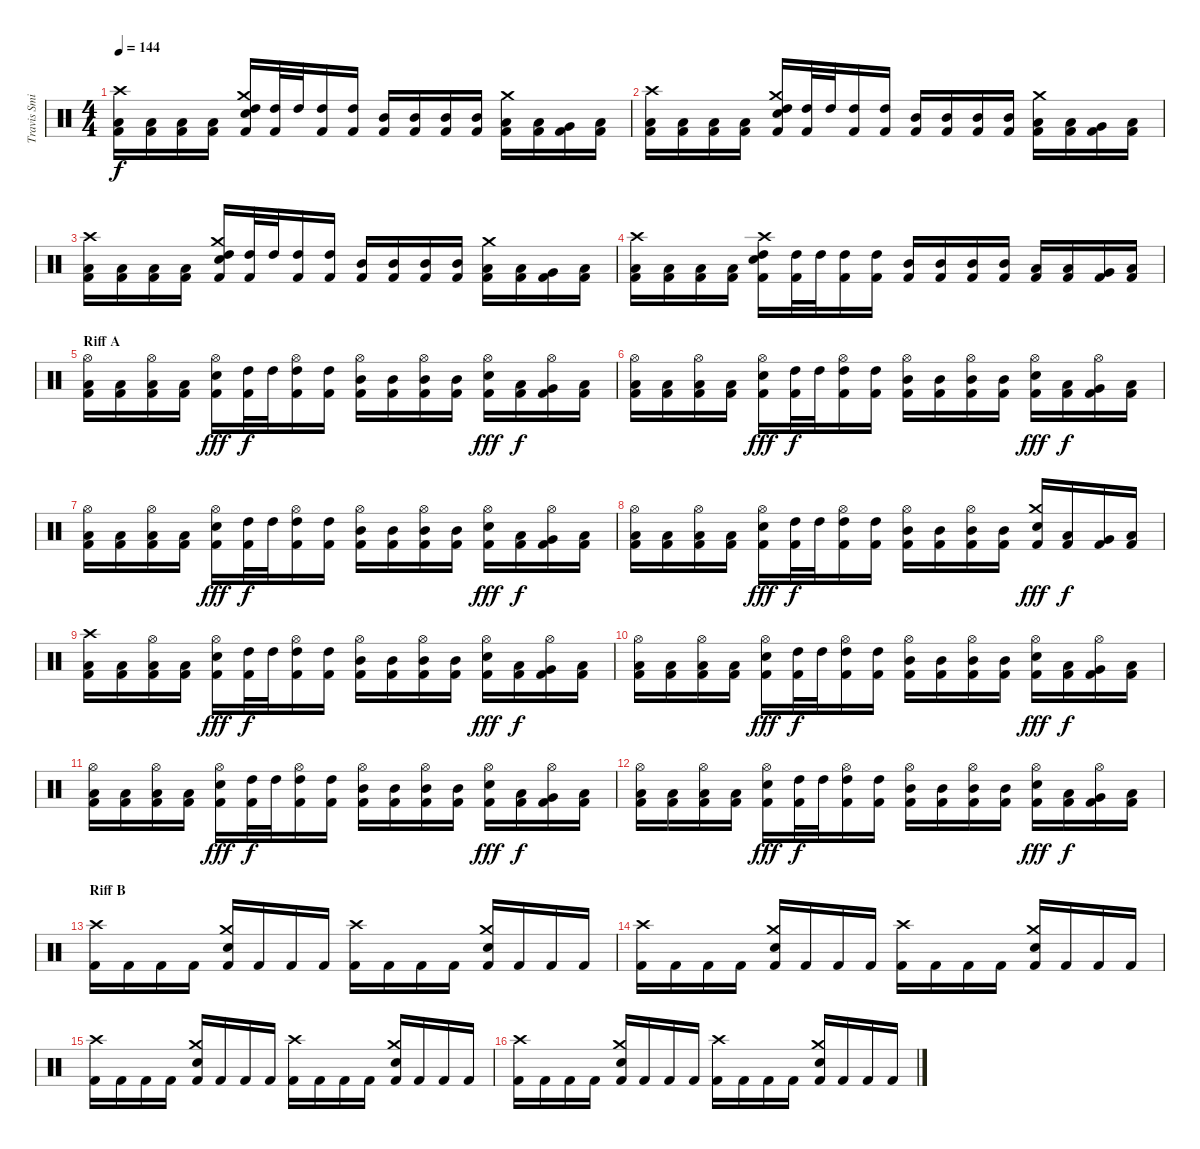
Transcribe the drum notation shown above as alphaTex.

\track ("Travis Smith" "Travis Smi") {instrument percussion}
\staff {score}
\articulation defaults
\ts (4 4)
\tempo 144
\clef neutral
\ks c
("Crash high (hit)" "Low Tom (hit)" "Kick (hit) 2").16{dy f} ("Low Tom (hit)" "Kick (hit) 2").16 ("Low Tom (hit)" "Kick (hit) 2").16 ("Low Tom (hit)" "Kick (hit) 2").16 ("Crash medium (hit)" "Electric Snare (hit)" "High Tom (hit)" "Kick (hit) 2").16 ("High Tom (hit)" "Kick (hit) 2").32 "High Tom (hit)".32 ("High Tom (hit)" "Kick (hit) 2").16 ("High Tom (hit)" "Kick (hit) 2").16 ("Mid Tom (hit)" "Kick (hit) 2").16 ("Mid Tom (hit)" "Kick (hit) 2").16 ("Mid Tom (hit)" "Kick (hit) 2").16 ("Mid Tom (hit)" "Kick (hit) 2").16 ("Crash medium (hit)" "Low Tom (hit)" "Kick (hit) 2").16 ("Low Tom (hit)" "Kick (hit) 2").16 ("Very Low Tom (hit)" "Kick (hit) 2").16 ("Low Floor Tom (hit)" "Kick (hit) 2").16 |
("Crash high (hit)" "Low Tom (hit)" "Kick (hit) 2").16 ("Low Tom (hit)" "Kick (hit) 2").16 ("Low Tom (hit)" "Kick (hit) 2").16 ("Low Tom (hit)" "Kick (hit) 2").16 ("Crash medium (hit)" "Electric Snare (hit)" "High Tom (hit)" "Kick (hit) 2").16 ("High Tom (hit)" "Kick (hit) 2").32 "High Tom (hit)".32 ("High Tom (hit)" "Kick (hit) 2").16 ("High Tom (hit)" "Kick (hit) 2").16 ("Mid Tom (hit)" "Kick (hit) 2").16 ("Mid Tom (hit)" "Kick (hit) 2").16 ("Mid Tom (hit)" "Kick (hit) 2").16 ("Mid Tom (hit)" "Kick (hit) 2").16 ("Crash medium (hit)" "Low Tom (hit)" "Kick (hit) 2").16 ("Low Tom (hit)" "Kick (hit) 2").16 ("Very Low Tom (hit)" "Kick (hit) 2").16 ("Low Floor Tom (hit)" "Kick (hit) 2").16 |
("Crash high (hit)" "Low Tom (hit)" "Kick (hit) 2").16 ("Low Tom (hit)" "Kick (hit) 2").16 ("Low Tom (hit)" "Kick (hit) 2").16 ("Low Tom (hit)" "Kick (hit) 2").16 ("Crash medium (hit)" "Electric Snare (hit)" "High Tom (hit)" "Kick (hit) 2").16 ("High Tom (hit)" "Kick (hit) 2").32 "High Tom (hit)".32 ("High Tom (hit)" "Kick (hit) 2").16 ("High Tom (hit)" "Kick (hit) 2").16 ("Mid Tom (hit)" "Kick (hit) 2").16 ("Mid Tom (hit)" "Kick (hit) 2").16 ("Mid Tom (hit)" "Kick (hit) 2").16 ("Mid Tom (hit)" "Kick (hit) 2").16 ("Crash medium (hit)" "Low Tom (hit)" "Kick (hit) 2").16 ("Low Tom (hit)" "Kick (hit) 2").16 ("Very Low Tom (hit)" "Kick (hit) 2").16 ("Low Floor Tom (hit)" "Kick (hit) 2").16 |
("Crash high (hit)" "Low Tom (hit)" "Kick (hit) 2").16 ("Low Tom (hit)" "Kick (hit) 2").16 ("Low Tom (hit)" "Kick (hit) 2").16 ("Low Tom (hit)" "Kick (hit) 2").16 ("Crash high (hit)" "Electric Snare (hit)" "High Tom (hit)" "Kick (hit) 2").16 ("High Tom (hit)" "Kick (hit) 2").32 "High Tom (hit)".32 ("High Tom (hit)" "Kick (hit) 2").16 ("High Tom (hit)" "Kick (hit) 2").16 ("Mid Tom (hit)" "Kick (hit) 2").16 ("Mid Tom (hit)" "Kick (hit) 2").16 ("Mid Tom (hit)" "Kick (hit) 2").16 ("Mid Tom (hit)" "Kick (hit) 2").16 ("Low Tom (hit)" "Kick (hit) 2").16 ("Low Tom (hit)" "Kick (hit) 2").16 ("Very Low Tom (hit)" "Kick (hit) 2").16 ("Low Floor Tom (hit)" "Kick (hit) 2").16 |
\section ("" "Riff A")
("Hi-Hat (open)" "Low Tom (hit)" "Kick (hit) 2").16 ("Low Tom (hit)" "Kick (hit) 2").16 ("Hi-Hat (open)" "Low Tom (hit)" "Kick (hit) 2").16 ("Low Tom (hit)" "Kick (hit) 2").16 ("Hi-Hat (open)" "Electric Snare (hit)" "Kick (hit) 2").16{dy fff} ("High Tom (hit)" "Kick (hit) 2").32{dy f} "High Tom (hit)".32 ("Hi-Hat (open)" "High Tom (hit)" "Kick (hit) 2").16 ("High Tom (hit)" "Kick (hit) 2").16 ("Hi-Hat (open)" "Mid Tom (hit)" "Kick (hit) 2").16 ("Mid Tom (hit)" "Kick (hit) 2").16 ("Hi-Hat (open)" "Mid Tom (hit)" "Kick (hit) 2").16 ("Mid Tom (hit)" "Kick (hit) 2").16 ("Hi-Hat (open)" "Electric Snare (hit)" "Kick (hit) 2").16{dy fff} ("Low Tom (hit)" "Kick (hit) 2").16{dy f} ("Hi-Hat (open)" "Very Low Tom (hit)" "Kick (hit) 2").16 ("Low Floor Tom (hit)" "Kick (hit) 2").16 |
("Hi-Hat (open)" "Low Tom (hit)" "Kick (hit) 2").16 ("Low Tom (hit)" "Kick (hit) 2").16 ("Hi-Hat (open)" "Low Tom (hit)" "Kick (hit) 2").16 ("Low Tom (hit)" "Kick (hit) 2").16 ("Hi-Hat (open)" "Electric Snare (hit)" "Kick (hit) 2").16{dy fff} ("High Tom (hit)" "Kick (hit) 2").32{dy f} "High Tom (hit)".32 ("Hi-Hat (open)" "High Tom (hit)" "Kick (hit) 2").16 ("High Tom (hit)" "Kick (hit) 2").16 ("Hi-Hat (open)" "Mid Tom (hit)" "Kick (hit) 2").16 ("Mid Tom (hit)" "Kick (hit) 2").16 ("Hi-Hat (open)" "Mid Tom (hit)" "Kick (hit) 2").16 ("Mid Tom (hit)" "Kick (hit) 2").16 ("Hi-Hat (open)" "Electric Snare (hit)" "Kick (hit) 2").16{dy fff} ("Low Tom (hit)" "Kick (hit) 2").16{dy f} ("Hi-Hat (open)" "Very Low Tom (hit)" "Kick (hit) 2").16 ("Low Floor Tom (hit)" "Kick (hit) 2").16 |
("Hi-Hat (open)" "Low Tom (hit)" "Kick (hit) 2").16 ("Low Tom (hit)" "Kick (hit) 2").16 ("Hi-Hat (open)" "Low Tom (hit)" "Kick (hit) 2").16 ("Low Tom (hit)" "Kick (hit) 2").16 ("Hi-Hat (open)" "Electric Snare (hit)" "Kick (hit) 2").16{dy fff} ("High Tom (hit)" "Kick (hit) 2").32{dy f} "High Tom (hit)".32 ("Hi-Hat (open)" "High Tom (hit)" "Kick (hit) 2").16 ("High Tom (hit)" "Kick (hit) 2").16 ("Hi-Hat (open)" "Mid Tom (hit)" "Kick (hit) 2").16 ("Mid Tom (hit)" "Kick (hit) 2").16 ("Hi-Hat (open)" "Mid Tom (hit)" "Kick (hit) 2").16 ("Mid Tom (hit)" "Kick (hit) 2").16 ("Hi-Hat (open)" "Electric Snare (hit)" "Kick (hit) 2").16{dy fff} ("Low Tom (hit)" "Kick (hit) 2").16{dy f} ("Hi-Hat (open)" "Very Low Tom (hit)" "Kick (hit) 2").16 ("Low Floor Tom (hit)" "Kick (hit) 2").16 |
("Hi-Hat (open)" "Low Tom (hit)" "Kick (hit) 2").16 ("Low Tom (hit)" "Kick (hit) 2").16 ("Hi-Hat (open)" "Low Tom (hit)" "Kick (hit) 2").16 ("Low Tom (hit)" "Kick (hit) 2").16 ("Hi-Hat (open)" "Electric Snare (hit)" "Kick (hit) 2").16{dy fff} ("High Tom (hit)" "Kick (hit) 2").32{dy f} "High Tom (hit)".32 ("Hi-Hat (open)" "High Tom (hit)" "Kick (hit) 2").16 ("High Tom (hit)" "Kick (hit) 2").16 ("Hi-Hat (open)" "Mid Tom (hit)" "Kick (hit) 2").16 ("Mid Tom (hit)" "Kick (hit) 2").16 ("Hi-Hat (open)" "Mid Tom (hit)" "Kick (hit) 2").16 ("Mid Tom (hit)" "Kick (hit) 2").16 ("Crash medium (hit)" "Electric Snare (hit)" "Kick (hit) 2").16{dy fff} ("Low Tom (hit)" "Kick (hit) 2").16{dy f} ("Very Low Tom (hit)" "Kick (hit) 2").16 ("Low Floor Tom (hit)" "Kick (hit) 2").16 |
("Crash high (hit)" "Low Tom (hit)" "Kick (hit) 2").16 ("Low Tom (hit)" "Kick (hit) 2").16 ("Hi-Hat (open)" "Low Tom (hit)" "Kick (hit) 2").16 ("Low Tom (hit)" "Kick (hit) 2").16 ("Hi-Hat (open)" "Electric Snare (hit)" "Kick (hit) 2").16{dy fff} ("High Tom (hit)" "Kick (hit) 2").32{dy f} "High Tom (hit)".32 ("Hi-Hat (open)" "High Tom (hit)" "Kick (hit) 2").16 ("High Tom (hit)" "Kick (hit) 2").16 ("Hi-Hat (open)" "Mid Tom (hit)" "Kick (hit) 2").16 ("Mid Tom (hit)" "Kick (hit) 2").16 ("Hi-Hat (open)" "Mid Tom (hit)" "Kick (hit) 2").16 ("Mid Tom (hit)" "Kick (hit) 2").16 ("Hi-Hat (open)" "Electric Snare (hit)" "Kick (hit) 2").16{dy fff} ("Low Tom (hit)" "Kick (hit) 2").16{dy f} ("Hi-Hat (open)" "Very Low Tom (hit)" "Kick (hit) 2").16 ("Low Floor Tom (hit)" "Kick (hit) 2").16 |
("Hi-Hat (open)" "Low Tom (hit)" "Kick (hit) 2").16 ("Low Tom (hit)" "Kick (hit) 2").16 ("Hi-Hat (open)" "Low Tom (hit)" "Kick (hit) 2").16 ("Low Tom (hit)" "Kick (hit) 2").16 ("Hi-Hat (open)" "Electric Snare (hit)" "Kick (hit) 2").16{dy fff} ("High Tom (hit)" "Kick (hit) 2").32{dy f} "High Tom (hit)".32 ("Hi-Hat (open)" "High Tom (hit)" "Kick (hit) 2").16 ("High Tom (hit)" "Kick (hit) 2").16 ("Hi-Hat (open)" "Mid Tom (hit)" "Kick (hit) 2").16 ("Mid Tom (hit)" "Kick (hit) 2").16 ("Hi-Hat (open)" "Mid Tom (hit)" "Kick (hit) 2").16 ("Mid Tom (hit)" "Kick (hit) 2").16 ("Hi-Hat (open)" "Electric Snare (hit)" "Kick (hit) 2").16{dy fff} ("Low Tom (hit)" "Kick (hit) 2").16{dy f} ("Hi-Hat (open)" "Very Low Tom (hit)" "Kick (hit) 2").16 ("Low Floor Tom (hit)" "Kick (hit) 2").16 |
("Hi-Hat (open)" "Low Tom (hit)" "Kick (hit) 2").16 ("Low Tom (hit)" "Kick (hit) 2").16 ("Hi-Hat (open)" "Low Tom (hit)" "Kick (hit) 2").16 ("Low Tom (hit)" "Kick (hit) 2").16 ("Hi-Hat (open)" "Electric Snare (hit)" "Kick (hit) 2").16{dy fff} ("High Tom (hit)" "Kick (hit) 2").32{dy f} "High Tom (hit)".32 ("Hi-Hat (open)" "High Tom (hit)" "Kick (hit) 2").16 ("High Tom (hit)" "Kick (hit) 2").16 ("Hi-Hat (open)" "Mid Tom (hit)" "Kick (hit) 2").16 ("Mid Tom (hit)" "Kick (hit) 2").16 ("Hi-Hat (open)" "Mid Tom (hit)" "Kick (hit) 2").16 ("Mid Tom (hit)" "Kick (hit) 2").16 ("Hi-Hat (open)" "Electric Snare (hit)" "Kick (hit) 2").16{dy fff} ("Low Tom (hit)" "Kick (hit) 2").16{dy f} ("Hi-Hat (open)" "Very Low Tom (hit)" "Kick (hit) 2").16 ("Low Floor Tom (hit)" "Kick (hit) 2").16 |
("Hi-Hat (open)" "Low Tom (hit)" "Kick (hit) 2").16 ("Low Tom (hit)" "Kick (hit) 2").16 ("Hi-Hat (open)" "Low Tom (hit)" "Kick (hit) 2").16 ("Low Tom (hit)" "Kick (hit) 2").16 ("Hi-Hat (open)" "Electric Snare (hit)" "Kick (hit) 2").16{dy fff} ("High Tom (hit)" "Kick (hit) 2").32{dy f} "High Tom (hit)".32 ("Hi-Hat (open)" "High Tom (hit)" "Kick (hit) 2").16 ("High Tom (hit)" "Kick (hit) 2").16 ("Hi-Hat (open)" "Mid Tom (hit)" "Kick (hit) 2").16 ("Mid Tom (hit)" "Kick (hit) 2").16 ("Hi-Hat (open)" "Mid Tom (hit)" "Kick (hit) 2").16 ("Mid Tom (hit)" "Kick (hit) 2").16 ("Hi-Hat (open)" "Electric Snare (hit)" "Kick (hit) 2").16{dy fff} ("Low Tom (hit)" "Kick (hit) 2").16{dy f} ("Hi-Hat (open)" "Very Low Tom (hit)" "Kick (hit) 2").16 ("Low Floor Tom (hit)" "Kick (hit) 2").16 |
\section ("" "Riff B")
("Crash high (hit)" "Kick (hit) 2").16 "Kick (hit) 2".16 "Kick (hit) 2".16 "Kick (hit) 2".16 ("Crash medium (hit)" "Electric Snare (hit)" "Kick (hit) 2").16 "Kick (hit) 2".16 "Kick (hit) 2".16 "Kick (hit) 2".16 ("Crash high (hit)" "Kick (hit) 2").16 "Kick (hit) 2".16 "Kick (hit) 2".16 "Kick (hit) 2".16 ("Crash medium (hit)" "Electric Snare (hit)" "Kick (hit) 2").16 "Kick (hit) 2".16 "Kick (hit) 2".16 "Kick (hit) 2".16 |
("Crash high (hit)" "Kick (hit) 2").16 "Kick (hit) 2".16 "Kick (hit) 2".16 "Kick (hit) 2".16 ("Crash medium (hit)" "Electric Snare (hit)" "Kick (hit) 2").16 "Kick (hit) 2".16 "Kick (hit) 2".16 "Kick (hit) 2".16 ("Crash high (hit)" "Kick (hit) 2").16 "Kick (hit) 2".16 "Kick (hit) 2".16 "Kick (hit) 2".16 ("Crash medium (hit)" "Electric Snare (hit)" "Kick (hit) 2").16 "Kick (hit) 2".16 "Kick (hit) 2".16 "Kick (hit) 2".16 |
("Crash high (hit)" "Kick (hit) 2").16 "Kick (hit) 2".16 "Kick (hit) 2".16 "Kick (hit) 2".16 ("Crash medium (hit)" "Electric Snare (hit)" "Kick (hit) 2").16 "Kick (hit) 2".16 "Kick (hit) 2".16 "Kick (hit) 2".16 ("Crash high (hit)" "Kick (hit) 2").16 "Kick (hit) 2".16 "Kick (hit) 2".16 "Kick (hit) 2".16 ("Crash medium (hit)" "Electric Snare (hit)" "Kick (hit) 2").16 "Kick (hit) 2".16 "Kick (hit) 2".16 "Kick (hit) 2".16 |
("Crash high (hit)" "Kick (hit) 2").16 "Kick (hit) 2".16 "Kick (hit) 2".16 "Kick (hit) 2".16 ("Crash medium (hit)" "Electric Snare (hit)" "Kick (hit) 2").16 "Kick (hit) 2".16 "Kick (hit) 2".16 "Kick (hit) 2".16 ("Crash high (hit)" "Kick (hit) 2").16 "Kick (hit) 2".16 "Kick (hit) 2".16 "Kick (hit) 2".16 ("Crash medium (hit)" "Electric Snare (hit)" "Kick (hit) 2").16 "Kick (hit) 2".16 "Kick (hit) 2".16 "Kick (hit) 2".16
